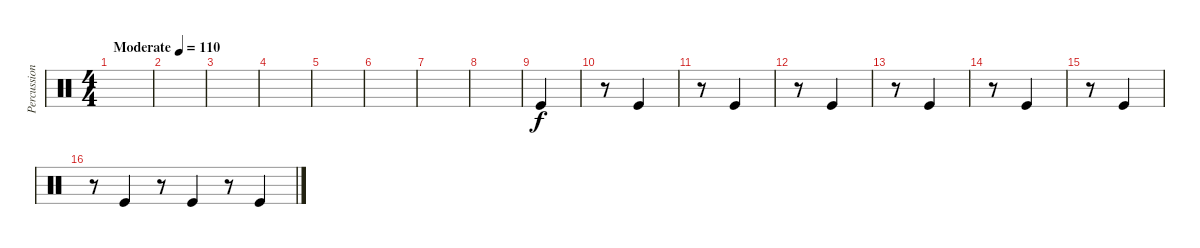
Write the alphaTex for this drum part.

\track ("Percussion" "Percussion") {instrument percussion}
\staff {score}
\articulation defaults
\ts (4 4)
\tempo (110 "Moderate")
\clef neutral
\ks c
|
|
|
|
|
|
|
|
"Kick (hit)".4 |
r.8 "Kick (hit)".4 |
r.8 "Kick (hit)".4 |
r.8 "Kick (hit)".4 |
r.8 "Kick (hit)".4 |
r.8 "Kick (hit)".4 |
r.8 "Kick (hit)".4 |
r.8 "Kick (hit)".4 r.8 "Kick (hit)".4 r.8 "Kick (hit)".4
